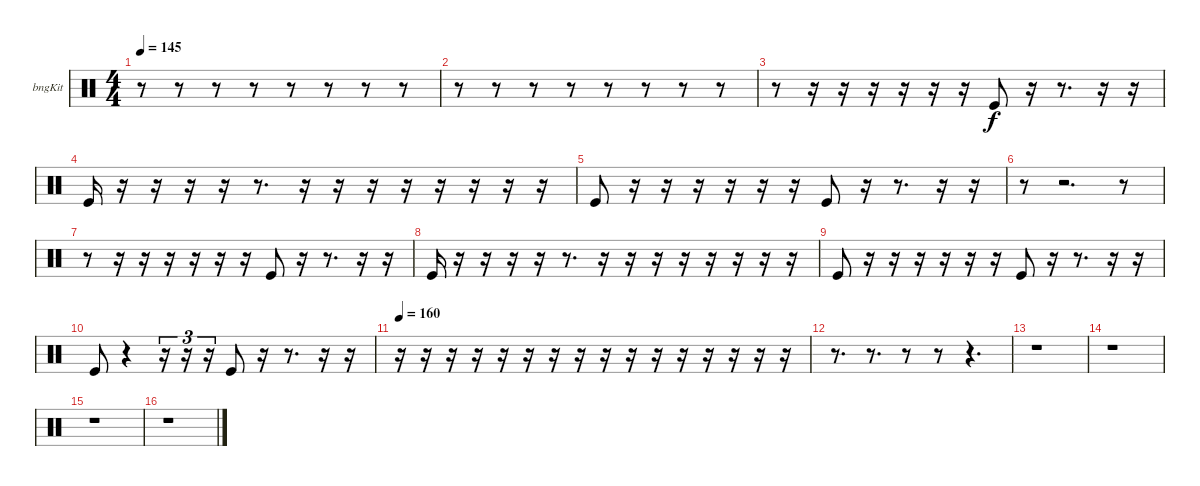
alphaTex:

\bracketExtendMode groupsimilarinstruments
\firstSystemTrackNameOrientation horizontal
\otherSystemsTrackNameOrientation horizontal
\track ("Bongos" "bngKit") {instrument percussion}
\staff {score}
\articulation defaults
\ts (4 4)
\tempo 145
\clef neutral
\ks c
r.8{dy f} r.8 r.8 r.8 r.8 r.8 r.8 r.8 |
r.8 r.8 r.8 r.8 r.8 r.8 r.8 r.8 |
r.8 r.16 r.16 r.16 r.16 r.16 r.16 "Kick (hit)".8 r.16 r.8{d} r.16 r.16 |
"Kick (hit)".16 r.16 r.16 r.16 r.16 r.8{d} r.16 r.16 r.16 r.16 r.16 r.16 r.16 r.16 |
"Kick (hit)".8 r.16 r.16 r.16 r.16 r.16 r.16 "Kick (hit)".8 r.16 r.8{d} r.16 r.16 |
r.8 r.2{d} r.8 |
r.8 r.16 r.16 r.16 r.16 r.16 r.16 "Kick (hit)".8 r.16 r.8{d} r.16 r.16 |
"Kick (hit)".16 r.16 r.16 r.16 r.16 r.8{d} r.16 r.16 r.16 r.16 r.16 r.16 r.16 r.16 |
"Kick (hit)".8 r.16 r.16 r.16 r.16 r.16 r.16 "Kick (hit)".8 r.16 r.8{d} r.16 r.16 |
"Kick (hit)".8 r.4 r.16{tu (3 2)} r.16{tu (3 2)} r.16{tu (3 2)} "Kick (hit)".8 r.16 r.8{d} r.16 r.16 |
\tempo 160
r.16 r.16 r.16 r.16 r.16 r.16 r.16 r.16 r.16 r.16 r.16 r.16 r.16 r.16 r.16 r.16 |
r.8{d} r.8{d} r.8 r.8 r.4{d} |
r.1 |
r.1 |
r.1 |
r.1
